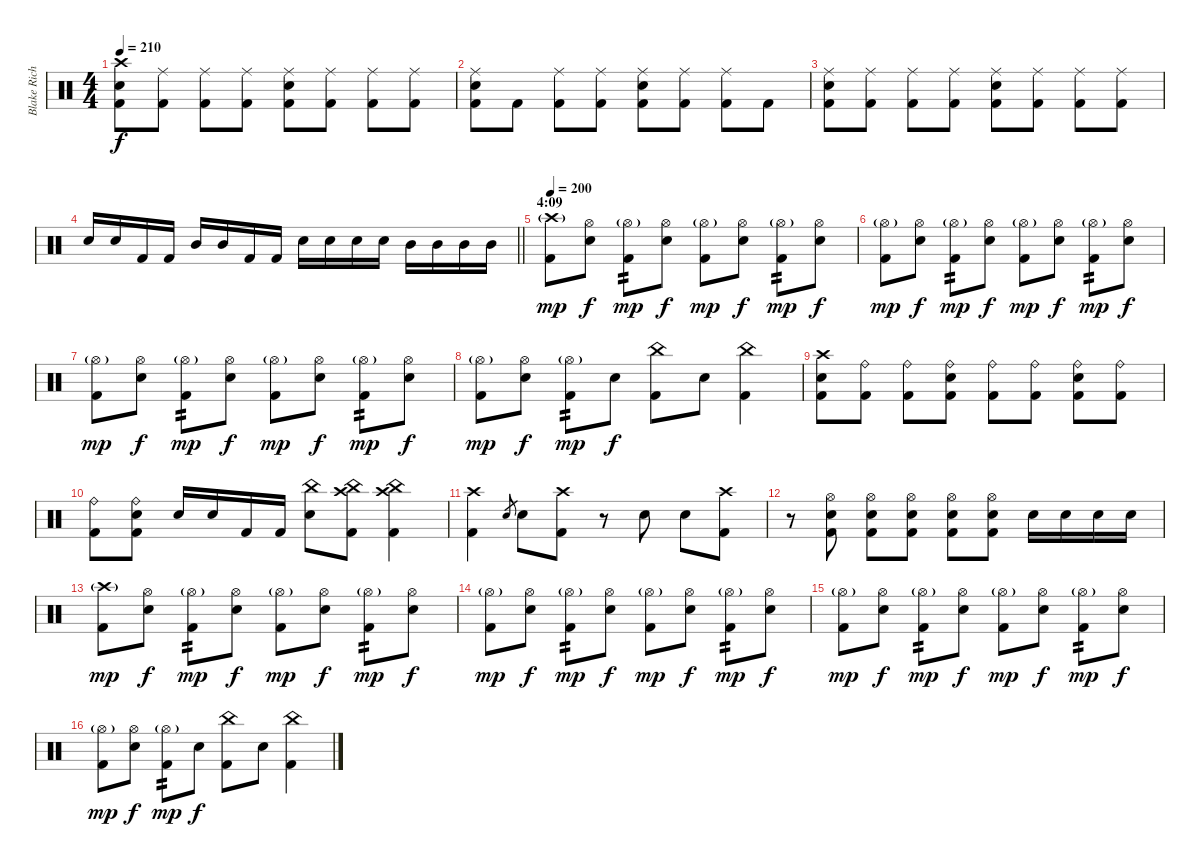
\track ("Blake Richardson" "Blake Rich") {instrument percussion}
\staff {score}
\articulation defaults
\ts (4 4)
\tempo 210
\clef neutral
\ks c
("Crash high (hit)" "Electric Snare (hit)" "Kick (hit) 2").8{dy f} ("Ride (middle)" "Kick (hit) 2").8 ("Ride (middle)" "Kick (hit) 2").8 ("Ride (middle)" "Kick (hit) 2").8 ("Ride (middle)" "Electric Snare (hit)" "Kick (hit) 2").8 ("Ride (middle)" "Kick (hit) 2").8 ("Ride (middle)" "Kick (hit) 2").8 ("Ride (middle)" "Kick (hit) 2").8 |
("Ride (middle)" "Electric Snare (hit)" "Kick (hit) 2").8 "Kick (hit) 2".8 ("Ride (middle)" "Kick (hit) 2").8 ("Ride (middle)" "Kick (hit) 2").8 ("Ride (middle)" "Electric Snare (hit)" "Kick (hit) 2").8 ("Ride (middle)" "Kick (hit) 2").8 ("Ride (middle)" "Kick (hit) 2").8 "Kick (hit) 2".8 |
("Ride (middle)" "Electric Snare (hit)" "Kick (hit) 2").8 ("Ride (middle)" "Kick (hit) 2").8 ("Ride (middle)" "Kick (hit) 2").8 ("Ride (middle)" "Kick (hit) 2").8 ("Ride (middle)" "Electric Snare (hit)" "Kick (hit) 2").8 ("Ride (middle)" "Kick (hit) 2").8 ("Ride (middle)" "Kick (hit) 2").8 ("Ride (middle)" "Kick (hit) 2").8 |
\barLineRight lightlight "Electric Snare (hit)".16 "Electric Snare (hit)".16 "Kick (hit) 2".16 "Kick (hit) 2".16 "Mid Tom (hit)".16 "Mid Tom (hit)".16 "Kick (hit) 2".16 "Kick (hit) 2".16 "Electric Snare (hit)".16 "Electric Snare (hit)".16 "Electric Snare (hit)".16 "Electric Snare (hit)".16 "Mid Tom (hit)".16 "Mid Tom (hit)".16 "Mid Tom (hit)".16 "Mid Tom (hit)".16
|
\section ("" "4:09")
\tempo 200
("Crash high (hit)"{g} "Kick (hit) 2").8{dy mp} ("Hi-Hat (open)" "Electric Snare (hit)").8{dy f} ("Hi-Hat (open)"{g} "Kick (hit) 2").8{tp 2 dy mp} ("Hi-Hat (open)" "Electric Snare (hit)").8{dy f} ("Hi-Hat (open)"{g} "Kick (hit) 2").8{dy mp} ("Hi-Hat (open)" "Electric Snare (hit)").8{dy f} ("Hi-Hat (open)"{g} "Kick (hit) 2").8{tp 2 dy mp} ("Hi-Hat (open)" "Electric Snare (hit)").8{dy f} |
("Hi-Hat (open)"{g} "Kick (hit) 2").8{dy mp} ("Hi-Hat (open)" "Electric Snare (hit)").8{dy f} ("Hi-Hat (open)"{g} "Kick (hit) 2").8{tp 2 dy mp} ("Hi-Hat (open)" "Electric Snare (hit)").8{dy f} ("Hi-Hat (open)"{g} "Kick (hit) 2").8{dy mp} ("Hi-Hat (open)" "Electric Snare (hit)").8{dy f} ("Hi-Hat (open)"{g} "Kick (hit) 2").8{tp 2 dy mp} ("Hi-Hat (open)" "Electric Snare (hit)").8{dy f} |
("Hi-Hat (open)"{g} "Kick (hit) 2").8{dy mp} ("Hi-Hat (open)" "Electric Snare (hit)").8{dy f} ("Hi-Hat (open)"{g} "Kick (hit) 2").8{tp 2 dy mp} ("Hi-Hat (open)" "Electric Snare (hit)").8{dy f} ("Hi-Hat (open)"{g} "Kick (hit) 2").8{dy mp} ("Hi-Hat (open)" "Electric Snare (hit)").8{dy f} ("Hi-Hat (open)"{g} "Kick (hit) 2").8{tp 2 dy mp} ("Hi-Hat (open)" "Electric Snare (hit)").8{dy f} |
("Hi-Hat (open)"{g} "Kick (hit) 2").8{dy mp} ("Hi-Hat (open)" "Electric Snare (hit)").8{dy f} ("Hi-Hat (open)"{g} "Kick (hit) 2").8{tp 2 dy mp} "Electric Snare (hit)".8{dy f} ("China (hit)" "Kick (hit) 2").8 "Electric Snare (hit)".8 ("China (hit)" "Kick (hit) 2").4 |
("Crash high (hit)" "Electric Snare (hit)" "Kick (hit) 2").8 ("Ride (bell)" "Kick (hit) 2").8 ("Ride (bell)" "Kick (hit) 2").8 ("Ride (bell)" "Electric Snare (hit)" "Kick (hit) 2").8 ("Ride (bell)" "Kick (hit) 2").8 ("Ride (bell)" "Kick (hit) 2").8 ("Ride (bell)" "Electric Snare (hit)" "Kick (hit) 2").8 ("Ride (bell)" "Kick (hit) 2").8 |
("Ride (bell)" "Kick (hit) 2").8 ("Ride (bell)" "Electric Snare (hit)" "Kick (hit) 2").8 "Electric Snare (hit)".16 "Electric Snare (hit)".16 "Kick (hit) 2".16 "Kick (hit) 2".16 ("China (hit)" "Electric Snare (hit)").8 ("China (hit)" "Crash high (hit)" "Kick (hit) 2").8 ("China (hit)" "Crash high (hit)" "Kick (hit) 2").4 |
("Crash high (hit)" "Kick (hit) 2").4 "Electric Snare (hit)".8{gr} "Electric Snare (hit)".8 ("Crash high (hit)" "Kick (hit) 2").8 r.8 "Electric Snare (hit)".8 "Electric Snare (hit)".8 ("Crash high (hit)" "Kick (hit) 2").8 |
r.8 ("Hi-Hat (open)" "Electric Snare (hit)" "Kick (hit) 2").8 ("Hi-Hat (open)" "Electric Snare (hit)" "Kick (hit) 2").8 ("Hi-Hat (open)" "Electric Snare (hit)" "Kick (hit) 2").8 ("Hi-Hat (open)" "Electric Snare (hit)" "Kick (hit) 2").8 ("Hi-Hat (open)" "Electric Snare (hit)" "Kick (hit) 2").8 "Electric Snare (hit)".16 "Electric Snare (hit)".16 "Electric Snare (hit)".16 "Electric Snare (hit)".16 |
("Crash high (hit)"{g} "Kick (hit) 2").8{dy mp} ("Hi-Hat (open)" "Electric Snare (hit)").8{dy f} ("Hi-Hat (open)"{g} "Kick (hit) 2").8{tp 2 dy mp} ("Hi-Hat (open)" "Electric Snare (hit)").8{dy f} ("Hi-Hat (open)"{g} "Kick (hit) 2").8{dy mp} ("Hi-Hat (open)" "Electric Snare (hit)").8{dy f} ("Hi-Hat (open)"{g} "Kick (hit) 2").8{tp 2 dy mp} ("Hi-Hat (open)" "Electric Snare (hit)").8{dy f} |
("Hi-Hat (open)"{g} "Kick (hit) 2").8{dy mp} ("Hi-Hat (open)" "Electric Snare (hit)").8{dy f} ("Hi-Hat (open)"{g} "Kick (hit) 2").8{tp 2 dy mp} ("Hi-Hat (open)" "Electric Snare (hit)").8{dy f} ("Hi-Hat (open)"{g} "Kick (hit) 2").8{dy mp} ("Hi-Hat (open)" "Electric Snare (hit)").8{dy f} ("Hi-Hat (open)"{g} "Kick (hit) 2").8{tp 2 dy mp} ("Hi-Hat (open)" "Electric Snare (hit)").8{dy f} |
("Hi-Hat (open)"{g} "Kick (hit) 2").8{dy mp} ("Hi-Hat (open)" "Electric Snare (hit)").8{dy f} ("Hi-Hat (open)"{g} "Kick (hit) 2").8{tp 2 dy mp} ("Hi-Hat (open)" "Electric Snare (hit)").8{dy f} ("Hi-Hat (open)"{g} "Kick (hit) 2").8{dy mp} ("Hi-Hat (open)" "Electric Snare (hit)").8{dy f} ("Hi-Hat (open)"{g} "Kick (hit) 2").8{tp 2 dy mp} ("Hi-Hat (open)" "Electric Snare (hit)").8{dy f} |
("Hi-Hat (open)"{g} "Kick (hit) 2").8{dy mp} ("Hi-Hat (open)" "Electric Snare (hit)").8{dy f} ("Hi-Hat (open)"{g} "Kick (hit) 2").8{tp 2 dy mp} "Electric Snare (hit)".8{dy f} ("China (hit)" "Kick (hit) 2").8 "Electric Snare (hit)".8 ("China (hit)" "Kick (hit) 2").4
